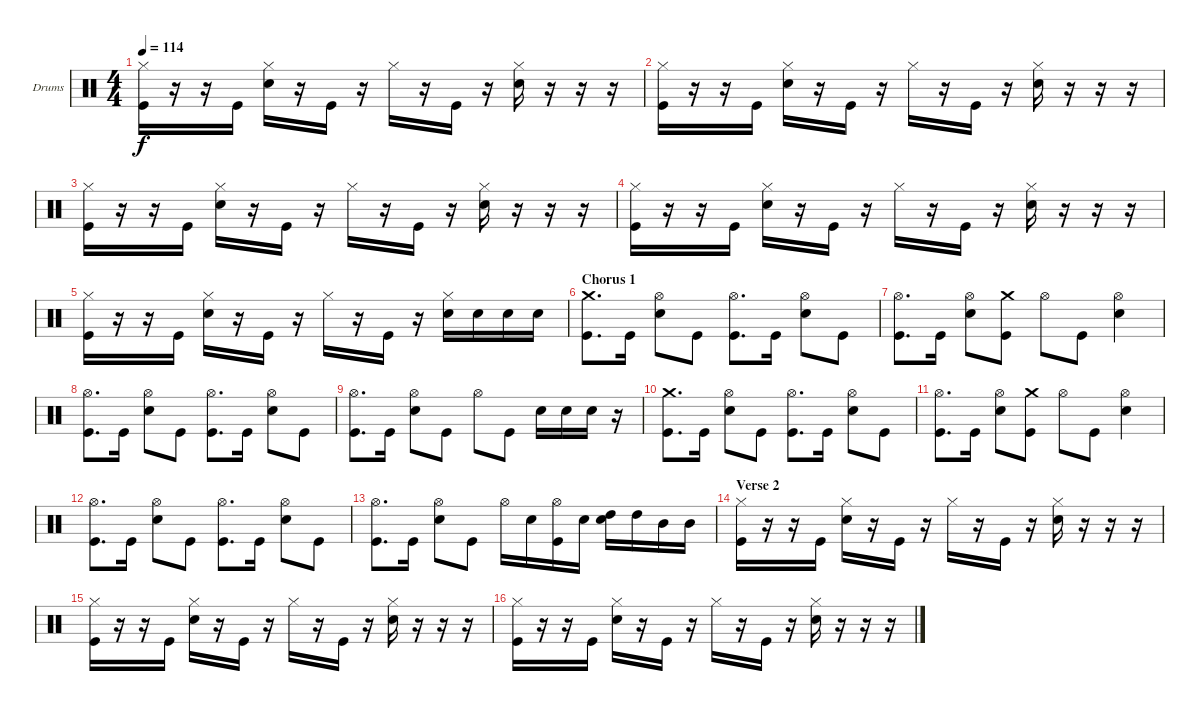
\bracketExtendMode groupsimilarinstruments
\firstSystemTrackNameOrientation horizontal
\otherSystemsTrackNameOrientation horizontal
\track ("Drums" "Drums") {instrument percussion}
\staff {score}
\articulation defaults
\ts (4 4)
\tempo 114
\clef neutral
\ks c
("Hi-Hat (closed)" "Kick (hit)").16{dy f} r.16 r.16 "Kick (hit)".16 ("Hi-Hat (closed)" "Snare (hit) 2").16 r.16 "Kick (hit)".16 r.16 "Hi-Hat (closed)".16 r.16 "Kick (hit)".16 r.16 ("Hi-Hat (closed)" "Snare (hit) 2").16 r.16 r.16 r.16 |
("Hi-Hat (closed)" "Kick (hit)").16 r.16 r.16 "Kick (hit)".16 ("Hi-Hat (closed)" "Snare (hit) 2").16 r.16 "Kick (hit)".16 r.16 "Hi-Hat (closed)".16 r.16 "Kick (hit)".16 r.16 ("Hi-Hat (closed)" "Snare (hit) 2").16 r.16 r.16 r.16 |
("Hi-Hat (closed)" "Kick (hit)").16 r.16 r.16 "Kick (hit)".16 ("Hi-Hat (closed)" "Snare (hit) 2").16 r.16 "Kick (hit)".16 r.16 "Hi-Hat (closed)".16 r.16 "Kick (hit)".16 r.16 ("Hi-Hat (closed)" "Snare (hit) 2").16 r.16 r.16 r.16 |
("Hi-Hat (closed)" "Kick (hit)").16 r.16 r.16 "Kick (hit)".16 ("Hi-Hat (closed)" "Snare (hit) 2").16 r.16 "Kick (hit)".16 r.16 "Hi-Hat (closed)".16 r.16 "Kick (hit)".16 r.16 ("Hi-Hat (closed)" "Snare (hit) 2").16 r.16 r.16 r.16 |
("Hi-Hat (closed)" "Kick (hit)").16 r.16 r.16 "Kick (hit)".16 ("Hi-Hat (closed)" "Snare (hit) 2").16 r.16 "Kick (hit)".16 r.16 "Hi-Hat (closed)".16 r.16 "Kick (hit)".16 r.16 ("Hi-Hat (closed)" "Snare (hit) 2").16 "Snare (hit) 2".16 "Snare (hit) 2".16 "Snare (hit) 2".16 |
\section ("" "Chorus 1")
("Crash medium (hit)" "Kick (hit)").8{d} "Kick (hit)".16 ("Hi-Hat (open)" "Snare (hit) 2").8 "Kick (hit)".8 ("Hi-Hat (open)" "Kick (hit)").8{d} "Kick (hit)".16 ("Hi-Hat (open)" "Snare (hit) 2").8 "Kick (hit)".8 |
("Hi-Hat (open)" "Kick (hit)").8{d} "Kick (hit)".16 ("Hi-Hat (open)" "Snare (hit) 2").8 ("Crash medium (hit)" "Kick (hit)").8 "Hi-Hat (open)".8 "Kick (hit)".8 ("Hi-Hat (open)" "Snare (hit) 2").4 |
("Kick (hit)" "Hi-Hat (open)").8{d} "Kick (hit)".16 ("Hi-Hat (open)" "Snare (hit) 2").8 "Kick (hit)".8 ("Hi-Hat (open)" "Kick (hit)").8{d} "Kick (hit)".16 ("Hi-Hat (open)" "Snare (hit) 2").8 "Kick (hit)".8 |
("Hi-Hat (open)" "Kick (hit)").8{d} "Kick (hit)".16 ("Snare (hit) 2" "Hi-Hat (open)").8 "Kick (hit)".8 "Hi-Hat (open)".8 "Kick (hit)".8 "Snare (hit) 2".16 "Snare (hit) 2".16 "Snare (hit) 2".16 r.16 |
("Crash medium (hit)" "Kick (hit)").8{d} "Kick (hit)".16 ("Hi-Hat (open)" "Snare (hit) 2").8 "Kick (hit)".8 ("Hi-Hat (open)" "Kick (hit)").8{d} "Kick (hit)".16 ("Hi-Hat (open)" "Snare (hit) 2").8 "Kick (hit)".8 |
("Hi-Hat (open)" "Kick (hit)").8{d} "Kick (hit)".16 ("Hi-Hat (open)" "Snare (hit) 2").8 ("Crash medium (hit)" "Kick (hit)").8 "Hi-Hat (open)".8 "Kick (hit)".8 ("Hi-Hat (open)" "Snare (hit) 2").4 |
("Kick (hit)" "Hi-Hat (open)").8{d} "Kick (hit)".16 ("Hi-Hat (open)" "Snare (hit) 2").8 "Kick (hit)".8 ("Hi-Hat (open)" "Kick (hit)").8{d} "Kick (hit)".16 ("Hi-Hat (open)" "Snare (hit) 2").8 "Kick (hit)".8 |
("Hi-Hat (open)" "Kick (hit)").8{d} "Kick (hit)".16 ("Hi-Hat (open)" "Snare (hit) 2").8 "Kick (hit)".8 "Hi-Hat (open)".16 "Snare (hit) 2".16 ("Kick (hit)" "Hi-Hat (open)").16 "Snare (hit) 2".16 ("High Tom (hit)" "Snare (hit) 2").16 "High Tom (hit)".16 "Mid Tom (hit)".16 "Mid Tom (hit)".16 |
\section ("" "Verse 2")
("Hi-Hat (closed)" "Kick (hit)").16 r.16 r.16 "Kick (hit)".16 ("Hi-Hat (closed)" "Snare (hit) 2").16 r.16 "Kick (hit)".16 r.16 "Hi-Hat (closed)".16 r.16 "Kick (hit)".16 r.16 ("Hi-Hat (closed)" "Snare (hit) 2").16 r.16 r.16 r.16 |
("Hi-Hat (closed)" "Kick (hit)").16 r.16 r.16 "Kick (hit)".16 ("Hi-Hat (closed)" "Snare (hit) 2").16 r.16 "Kick (hit)".16 r.16 "Hi-Hat (closed)".16 r.16 "Kick (hit)".16 r.16 ("Hi-Hat (closed)" "Snare (hit) 2").16 r.16 r.16 r.16 |
("Hi-Hat (closed)" "Kick (hit)").16 r.16 r.16 "Kick (hit)".16 ("Hi-Hat (closed)" "Snare (hit) 2").16 r.16 "Kick (hit)".16 r.16 "Hi-Hat (closed)".16 r.16 "Kick (hit)".16 r.16 ("Hi-Hat (closed)" "Snare (hit) 2").16 r.16 r.16 r.16
